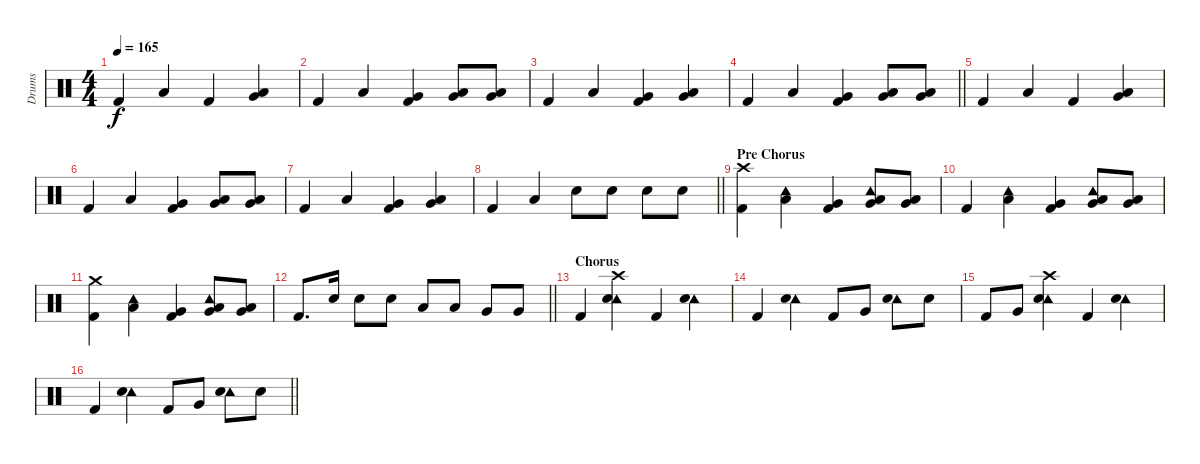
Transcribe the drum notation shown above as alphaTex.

\track ("Drums" "Drums") {instrument percussion}
\staff {score}
\articulation defaults
\ts (4 4)
\tempo 165
\clef neutral
\ks c "Kick (hit) 2".4{dy f} "Low Tom (hit)".4 "Kick (hit) 2".4
("Low Tom (hit)" "Very Low Tom (hit)").4 |
"Kick (hit) 2".4 "Low Tom (hit)".4 ("Very Low Tom (hit)" "Kick (hit) 2").4 ("Low Tom (hit)" "Very Low Tom (hit)").8 ("Low Tom (hit)" "Very Low Tom (hit)").8 |
"Kick (hit) 2".4 "Low Tom (hit)".4 ("Very Low Tom (hit)" "Kick (hit) 2").4 ("Low Tom (hit)" "Very Low Tom (hit)").4 |
\barLineRight lightlight "Kick (hit) 2".4 "Low Tom (hit)".4
("Very Low Tom (hit)" "Kick (hit) 2").4 ("Low Tom (hit)" "Very Low Tom (hit)").8 ("Low Tom (hit)" "Very Low Tom (hit)").8 |
"Kick (hit) 2".4 "Low Tom (hit)".4 "Kick (hit) 2".4 ("Low Tom (hit)" "Very Low Tom (hit)").4 |
"Kick (hit) 2".4 "Low Tom (hit)".4 ("Very Low Tom (hit)" "Kick (hit) 2").4 ("Low Tom (hit)" "Very Low Tom (hit)").8 ("Low Tom (hit)" "Very Low Tom (hit)").8 |
"Kick (hit) 2".4 "Low Tom (hit)".4 ("Very Low Tom (hit)" "Kick (hit) 2").4 ("Low Tom (hit)" "Very Low Tom (hit)").4 |
\barLineRight lightlight "Kick (hit) 2".4 "Low Tom (hit)".4 "Snare (hit) 2".8 "Snare (hit) 2".8 "Snare (hit) 2".8 "Snare (hit) 2".8
|
\section ("" "Pre Chorus")
("Crash high (hit)" "Kick (hit) 2").4 ("Tambourine (hit)" "Low Tom (hit)").4 ("Very Low Tom (hit)" "Kick (hit) 2").4 ("Tambourine (hit)" "Low Tom (hit)" "Very Low Tom (hit)").8 ("Low Tom (hit)" "Very Low Tom (hit)").8 |
"Kick (hit) 2".4 ("Tambourine (hit)" "Low Tom (hit)").4 ("Very Low Tom (hit)" "Kick (hit) 2").4 ("Tambourine (hit)" "Low Tom (hit)" "Very Low Tom (hit)").8 ("Low Tom (hit)" "Very Low Tom (hit)").8 |
("Crash medium (hit)" "Kick (hit) 2").4 ("Tambourine (hit)" "Low Tom (hit)").4 ("Very Low Tom (hit)" "Kick (hit) 2").4 ("Tambourine (hit)" "Low Tom (hit)" "Very Low Tom (hit)").8 ("Low Tom (hit)" "Very Low Tom (hit)").8 |
\barLineRight lightlight "Kick (hit) 2".8{d} "Snare (hit) 2".16 "Snare (hit) 2".8 "Snare (hit) 2".8 "Low Tom (hit)".8 "Low Tom (hit)".8 "Very Low Tom (hit)".8 "Very Low Tom (hit)".8
|
\section ("" "Chorus")
"Kick (hit) 2".4 ("Crash high (hit)" "Tambourine (hit)" "Snare (hit) 2").4 "Kick (hit) 2".4 ("Tambourine (hit)" "Snare (hit) 2").4 |
"Kick (hit) 2".4 ("Tambourine (hit)" "Snare (hit) 2").4 "Kick (hit) 2".8 "Very Low Tom (hit)".8 ("Tambourine (hit)" "Snare (hit) 2").8 "Snare (hit) 2".8 |
"Kick (hit) 2".8 "Very Low Tom (hit)".8 ("Crash high (hit)" "Tambourine (hit)" "Snare (hit) 2").4 "Kick (hit) 2".4 ("Tambourine (hit)" "Snare (hit) 2").4 |
\barLineRight lightlight "Kick (hit) 2".4
("Tambourine (hit)" "Snare (hit) 2").4 "Kick (hit) 2".8 "Very Low Tom (hit)".8 ("Tambourine (hit)" "Snare (hit) 2").8 "Snare (hit) 2".8
